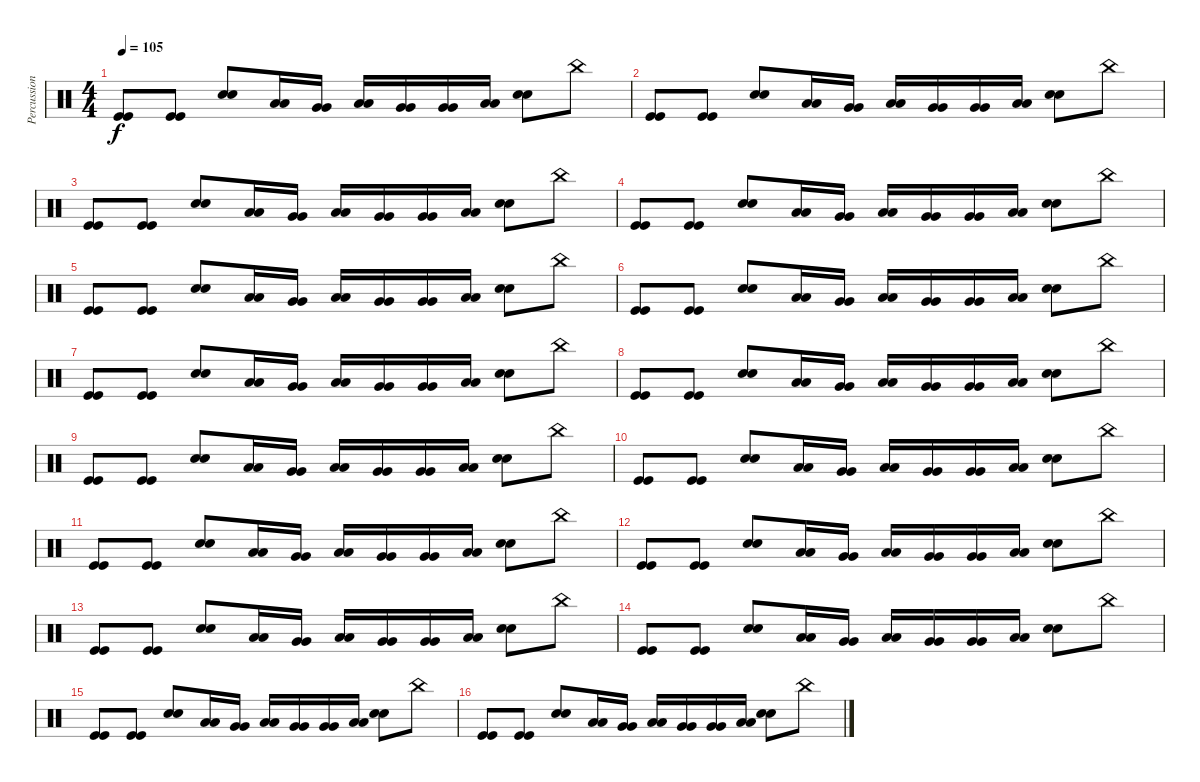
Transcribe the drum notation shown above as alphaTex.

\track ("Percussion" "Percussion") {instrument percussion}
\staff {score}
\articulation defaults
\ts (4 4)
\tempo 105
\clef neutral
\ks c
("Kick (hit)" "Kick (hit)").8{dy f} ("Kick (hit)" "Kick (hit)").8 ("Snare (hit) 2" "Snare (hit) 2").8 ("Low Tom (hit)" "Low Tom (hit)").16 ("Very Low Tom (hit)" "Very Low Tom (hit)").16 ("Low Floor Tom (hit)" "Low Floor Tom (hit)").16 ("Very Low Tom (hit)" "Very Low Tom (hit)").16 ("Very Low Tom (hit)" "Very Low Tom (hit)").16 ("Low Floor Tom (hit)" "Low Floor Tom (hit)").16 ("Snare (hit) 2" "Snare (hit) 2").8 "China (hit)".8 |
("Kick (hit)" "Kick (hit)").8 ("Kick (hit)" "Kick (hit)").8 ("Snare (hit) 2" "Snare (hit) 2").8 ("Low Tom (hit)" "Low Tom (hit)").16 ("Very Low Tom (hit)" "Very Low Tom (hit)").16 ("Low Floor Tom (hit)" "Low Floor Tom (hit)").16 ("Very Low Tom (hit)" "Very Low Tom (hit)").16 ("Very Low Tom (hit)" "Very Low Tom (hit)").16 ("Low Floor Tom (hit)" "Low Floor Tom (hit)").16 ("Snare (hit) 2" "Snare (hit) 2").8 "China (hit)".8 |
("Kick (hit)" "Kick (hit)").8 ("Kick (hit)" "Kick (hit)").8 ("Snare (hit) 2" "Snare (hit) 2").8 ("Low Tom (hit)" "Low Tom (hit)").16 ("Very Low Tom (hit)" "Very Low Tom (hit)").16 ("Low Floor Tom (hit)" "Low Floor Tom (hit)").16 ("Very Low Tom (hit)" "Very Low Tom (hit)").16 ("Very Low Tom (hit)" "Very Low Tom (hit)").16 ("Low Floor Tom (hit)" "Low Floor Tom (hit)").16 ("Snare (hit) 2" "Snare (hit) 2").8 "China (hit)".8 |
("Kick (hit)" "Kick (hit)").8 ("Kick (hit)" "Kick (hit)").8 ("Snare (hit) 2" "Snare (hit) 2").8 ("Low Tom (hit)" "Low Tom (hit)").16 ("Very Low Tom (hit)" "Very Low Tom (hit)").16 ("Low Floor Tom (hit)" "Low Floor Tom (hit)").16 ("Very Low Tom (hit)" "Very Low Tom (hit)").16 ("Very Low Tom (hit)" "Very Low Tom (hit)").16 ("Low Floor Tom (hit)" "Low Floor Tom (hit)").16 ("Snare (hit) 2" "Snare (hit) 2").8 "China (hit)".8 |
("Kick (hit)" "Kick (hit)").8 ("Kick (hit)" "Kick (hit)").8 ("Snare (hit) 2" "Snare (hit) 2").8 ("Low Tom (hit)" "Low Tom (hit)").16 ("Very Low Tom (hit)" "Very Low Tom (hit)").16 ("Low Floor Tom (hit)" "Low Floor Tom (hit)").16 ("Very Low Tom (hit)" "Very Low Tom (hit)").16 ("Very Low Tom (hit)" "Very Low Tom (hit)").16 ("Low Floor Tom (hit)" "Low Floor Tom (hit)").16 ("Snare (hit) 2" "Snare (hit) 2").8 "China (hit)".8 |
("Kick (hit)" "Kick (hit)").8 ("Kick (hit)" "Kick (hit)").8 ("Snare (hit) 2" "Snare (hit) 2").8 ("Low Tom (hit)" "Low Tom (hit)").16 ("Very Low Tom (hit)" "Very Low Tom (hit)").16 ("Low Floor Tom (hit)" "Low Floor Tom (hit)").16 ("Very Low Tom (hit)" "Very Low Tom (hit)").16 ("Very Low Tom (hit)" "Very Low Tom (hit)").16 ("Low Floor Tom (hit)" "Low Floor Tom (hit)").16 ("Snare (hit) 2" "Snare (hit) 2").8 "China (hit)".8 |
("Kick (hit)" "Kick (hit)").8 ("Kick (hit)" "Kick (hit)").8 ("Snare (hit) 2" "Snare (hit) 2").8 ("Low Tom (hit)" "Low Tom (hit)").16 ("Very Low Tom (hit)" "Very Low Tom (hit)").16 ("Low Floor Tom (hit)" "Low Floor Tom (hit)").16 ("Very Low Tom (hit)" "Very Low Tom (hit)").16 ("Very Low Tom (hit)" "Very Low Tom (hit)").16 ("Low Floor Tom (hit)" "Low Floor Tom (hit)").16 ("Snare (hit) 2" "Snare (hit) 2").8 "China (hit)".8 |
("Kick (hit)" "Kick (hit)").8 ("Kick (hit)" "Kick (hit)").8 ("Snare (hit) 2" "Snare (hit) 2").8 ("Low Tom (hit)" "Low Tom (hit)").16 ("Very Low Tom (hit)" "Very Low Tom (hit)").16 ("Low Floor Tom (hit)" "Low Floor Tom (hit)").16 ("Very Low Tom (hit)" "Very Low Tom (hit)").16 ("Very Low Tom (hit)" "Very Low Tom (hit)").16 ("Low Floor Tom (hit)" "Low Floor Tom (hit)").16 ("Snare (hit) 2" "Snare (hit) 2").8 "China (hit)".8 |
("Kick (hit)" "Kick (hit)").8 ("Kick (hit)" "Kick (hit)").8 ("Snare (hit) 2" "Snare (hit) 2").8 ("Low Tom (hit)" "Low Tom (hit)").16 ("Very Low Tom (hit)" "Very Low Tom (hit)").16 ("Low Floor Tom (hit)" "Low Floor Tom (hit)").16 ("Very Low Tom (hit)" "Very Low Tom (hit)").16 ("Very Low Tom (hit)" "Very Low Tom (hit)").16 ("Low Floor Tom (hit)" "Low Floor Tom (hit)").16 ("Snare (hit) 2" "Snare (hit) 2").8 "China (hit)".8 |
("Kick (hit)" "Kick (hit)").8 ("Kick (hit)" "Kick (hit)").8 ("Snare (hit) 2" "Snare (hit) 2").8 ("Low Tom (hit)" "Low Tom (hit)").16 ("Very Low Tom (hit)" "Very Low Tom (hit)").16 ("Low Floor Tom (hit)" "Low Floor Tom (hit)").16 ("Very Low Tom (hit)" "Very Low Tom (hit)").16 ("Very Low Tom (hit)" "Very Low Tom (hit)").16 ("Low Floor Tom (hit)" "Low Floor Tom (hit)").16 ("Snare (hit) 2" "Snare (hit) 2").8 "China (hit)".8 |
("Kick (hit)" "Kick (hit)").8 ("Kick (hit)" "Kick (hit)").8 ("Snare (hit) 2" "Snare (hit) 2").8 ("Low Tom (hit)" "Low Tom (hit)").16 ("Very Low Tom (hit)" "Very Low Tom (hit)").16 ("Low Floor Tom (hit)" "Low Floor Tom (hit)").16 ("Very Low Tom (hit)" "Very Low Tom (hit)").16 ("Very Low Tom (hit)" "Very Low Tom (hit)").16 ("Low Floor Tom (hit)" "Low Floor Tom (hit)").16 ("Snare (hit) 2" "Snare (hit) 2").8 "China (hit)".8 |
("Kick (hit)" "Kick (hit)").8 ("Kick (hit)" "Kick (hit)").8 ("Snare (hit) 2" "Snare (hit) 2").8 ("Low Tom (hit)" "Low Tom (hit)").16 ("Very Low Tom (hit)" "Very Low Tom (hit)").16 ("Low Floor Tom (hit)" "Low Floor Tom (hit)").16 ("Very Low Tom (hit)" "Very Low Tom (hit)").16 ("Very Low Tom (hit)" "Very Low Tom (hit)").16 ("Low Floor Tom (hit)" "Low Floor Tom (hit)").16 ("Snare (hit) 2" "Snare (hit) 2").8 "China (hit)".8 |
("Kick (hit)" "Kick (hit)").8 ("Kick (hit)" "Kick (hit)").8 ("Snare (hit) 2" "Snare (hit) 2").8 ("Low Tom (hit)" "Low Tom (hit)").16 ("Very Low Tom (hit)" "Very Low Tom (hit)").16 ("Low Floor Tom (hit)" "Low Floor Tom (hit)").16 ("Very Low Tom (hit)" "Very Low Tom (hit)").16 ("Very Low Tom (hit)" "Very Low Tom (hit)").16 ("Low Floor Tom (hit)" "Low Floor Tom (hit)").16 ("Snare (hit) 2" "Snare (hit) 2").8 "China (hit)".8 |
("Kick (hit)" "Kick (hit)").8 ("Kick (hit)" "Kick (hit)").8 ("Snare (hit) 2" "Snare (hit) 2").8 ("Low Tom (hit)" "Low Tom (hit)").16 ("Very Low Tom (hit)" "Very Low Tom (hit)").16 ("Low Floor Tom (hit)" "Low Floor Tom (hit)").16 ("Very Low Tom (hit)" "Very Low Tom (hit)").16 ("Very Low Tom (hit)" "Very Low Tom (hit)").16 ("Low Floor Tom (hit)" "Low Floor Tom (hit)").16 ("Snare (hit) 2" "Snare (hit) 2").8 "China (hit)".8 |
("Kick (hit)" "Kick (hit)").8 ("Kick (hit)" "Kick (hit)").8 ("Snare (hit) 2" "Snare (hit) 2").8 ("Low Tom (hit)" "Low Tom (hit)").16 ("Very Low Tom (hit)" "Very Low Tom (hit)").16 ("Low Floor Tom (hit)" "Low Floor Tom (hit)").16 ("Very Low Tom (hit)" "Very Low Tom (hit)").16 ("Very Low Tom (hit)" "Very Low Tom (hit)").16 ("Low Floor Tom (hit)" "Low Floor Tom (hit)").16 ("Snare (hit) 2" "Snare (hit) 2").8 "China (hit)".8 |
("Kick (hit)" "Kick (hit)").8 ("Kick (hit)" "Kick (hit)").8 ("Snare (hit) 2" "Snare (hit) 2").8 ("Low Tom (hit)" "Low Tom (hit)").16 ("Very Low Tom (hit)" "Very Low Tom (hit)").16 ("Low Floor Tom (hit)" "Low Floor Tom (hit)").16 ("Very Low Tom (hit)" "Very Low Tom (hit)").16 ("Very Low Tom (hit)" "Very Low Tom (hit)").16 ("Low Floor Tom (hit)" "Low Floor Tom (hit)").16 ("Snare (hit) 2" "Snare (hit) 2").8 "China (hit)".8
